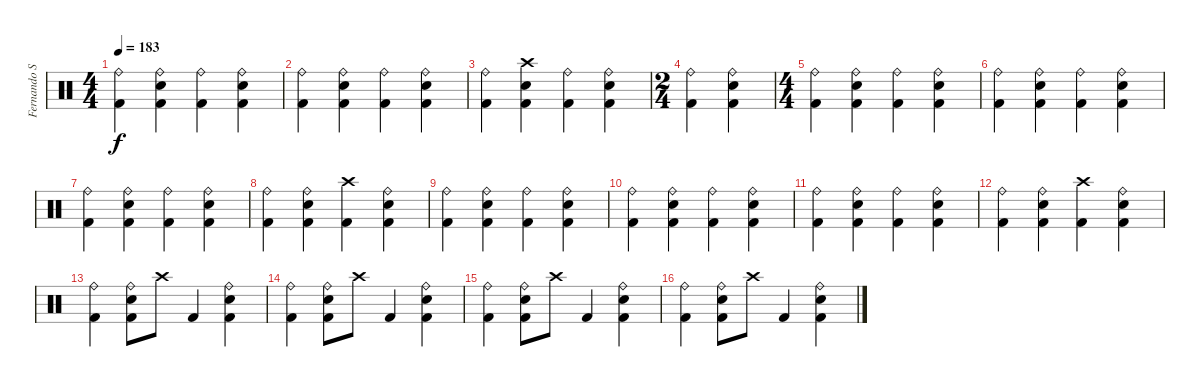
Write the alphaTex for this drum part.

\track ("Fernando Scarcella" "Fernando S") {instrument percussion}
\staff {score}
\articulation defaults
\ts (4 4)
\tempo 183
\clef neutral
\ks c
("Ride (bell)" "Kick (hit) 2").4{dy f} ("Ride (bell)" "Kick (hit) 2" "Snare (hit) 2").4 ("Ride (bell)" "Kick (hit) 2").4 ("Ride (bell)" "Kick (hit) 2" "Snare (hit) 2").4 |
("Ride (bell)" "Kick (hit) 2").4 ("Ride (bell)" "Kick (hit) 2" "Snare (hit) 2").4 ("Ride (bell)" "Kick (hit) 2").4 ("Ride (bell)" "Kick (hit) 2" "Snare (hit) 2").4 |
("Ride (bell)" "Kick (hit) 2").4 ("Crash high (hit)" "Kick (hit) 2" "Snare (hit) 2").4 ("Ride (bell)" "Kick (hit) 2").4 ("Ride (bell)" "Kick (hit) 2" "Snare (hit) 2").4 |
\ts (2 4)
("Ride (bell)" "Kick (hit) 2").4 ("Ride (bell)" "Kick (hit) 2" "Snare (hit) 2").4 |
\ts (4 4)
("Ride (bell)" "Kick (hit) 2").4 ("Ride (bell)" "Kick (hit) 2" "Snare (hit) 2").4 ("Ride (bell)" "Kick (hit) 2").4 ("Ride (bell)" "Kick (hit) 2" "Snare (hit) 2").4 |
("Ride (bell)" "Kick (hit) 2").4 ("Ride (bell)" "Kick (hit) 2" "Snare (hit) 2").4 ("Ride (bell)" "Kick (hit) 2").4 ("Ride (bell)" "Kick (hit) 2" "Snare (hit) 2").4 |
("Ride (bell)" "Kick (hit) 2").4 ("Ride (bell)" "Kick (hit) 2" "Snare (hit) 2").4 ("Ride (bell)" "Kick (hit) 2").4 ("Ride (bell)" "Kick (hit) 2" "Snare (hit) 2").4 |
("Ride (bell)" "Kick (hit) 2").4 ("Ride (bell)" "Kick (hit) 2" "Snare (hit) 2").4 ("Crash high (hit)" "Kick (hit) 2").4 ("Ride (bell)" "Kick (hit) 2" "Snare (hit) 2").4 |
("Ride (bell)" "Kick (hit) 2").4 ("Ride (bell)" "Kick (hit) 2" "Snare (hit) 2").4 ("Ride (bell)" "Kick (hit) 2").4 ("Ride (bell)" "Kick (hit) 2" "Snare (hit) 2").4 |
("Ride (bell)" "Kick (hit) 2").4 ("Ride (bell)" "Kick (hit) 2" "Snare (hit) 2").4 ("Ride (bell)" "Kick (hit) 2").4 ("Ride (bell)" "Kick (hit) 2" "Snare (hit) 2").4 |
("Ride (bell)" "Kick (hit) 2").4 ("Ride (bell)" "Kick (hit) 2" "Snare (hit) 2").4 ("Ride (bell)" "Kick (hit) 2").4 ("Ride (bell)" "Kick (hit) 2" "Snare (hit) 2").4 |
("Ride (bell)" "Kick (hit) 2").4 ("Ride (bell)" "Kick (hit) 2" "Snare (hit) 2").4 ("Crash high (hit)" "Kick (hit) 2").4 ("Ride (bell)" "Kick (hit) 2" "Snare (hit) 2").4 |
("Ride (bell)" "Kick (hit) 2").4 ("Ride (bell)" "Kick (hit) 2" "Snare (hit) 2").8 "Crash high (hit)".8 "Kick (hit) 2".4 ("Ride (bell)" "Kick (hit) 2" "Snare (hit) 2").4 |
("Ride (bell)" "Kick (hit) 2").4 ("Ride (bell)" "Kick (hit) 2" "Snare (hit) 2").8 "Crash high (hit)".8 "Kick (hit) 2".4 ("Ride (bell)" "Kick (hit) 2" "Snare (hit) 2").4 |
("Ride (bell)" "Kick (hit) 2").4 ("Ride (bell)" "Kick (hit) 2" "Snare (hit) 2").8 "Crash high (hit)".8 "Kick (hit) 2".4 ("Ride (bell)" "Kick (hit) 2" "Snare (hit) 2").4 |
("Ride (bell)" "Kick (hit) 2").4 ("Ride (bell)" "Kick (hit) 2" "Snare (hit) 2").8 "Crash high (hit)".8 "Kick (hit) 2".4 ("Ride (bell)" "Kick (hit) 2" "Snare (hit) 2").4
